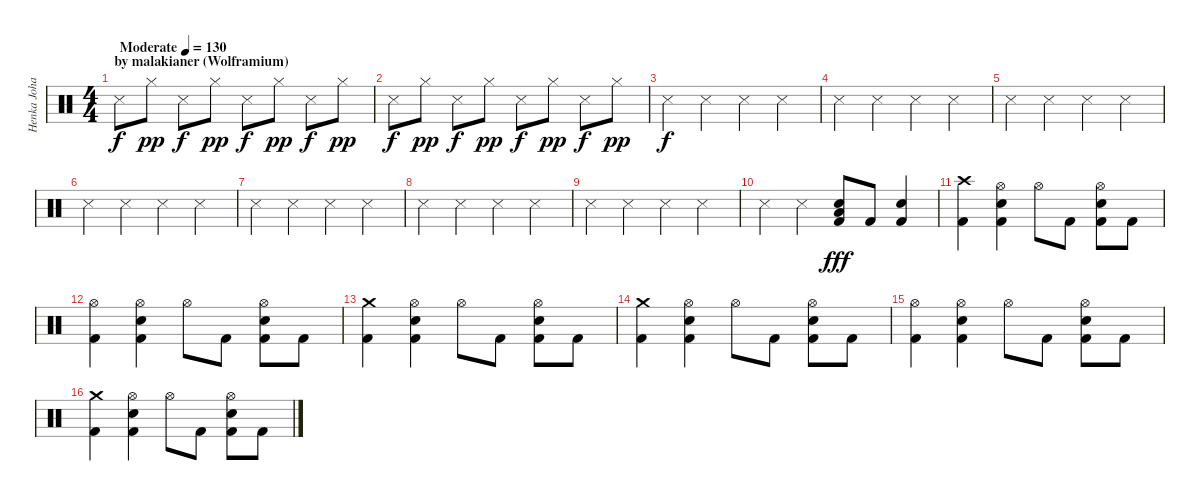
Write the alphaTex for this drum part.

\track ("Henka Johansson" "Henka Joha") {instrument percussion}
\staff {score}
\articulation defaults
\ts (4 4)
\section ("" "by malakianer (Wolframium)")
\tempo (130 "Moderate")
\clef neutral
\ks c "Snare (side stick) 3".8{dy f} "Hi-Hat (closed)".8{dy pp} "Snare (side stick) 3".8{dy f} "Hi-Hat (closed)".8{dy pp} "Snare (side stick) 3".8{dy f} "Hi-Hat (closed)".8{dy pp} "Snare (side stick) 3".8{dy f} "Hi-Hat (closed)".8{dy pp}
|
"Snare (side stick) 3".8{dy f} "Hi-Hat (closed)".8{dy pp} "Snare (side stick) 3".8{dy f} "Hi-Hat (closed)".8{dy pp} "Snare (side stick) 3".8{dy f} "Hi-Hat (closed)".8{dy pp} "Snare (side stick) 3".8{dy f} "Hi-Hat (closed)".8{dy pp} |
"Snare (side stick) 3".4{dy f} "Snare (side stick) 3".4 "Snare (side stick) 3".4 "Snare (side stick) 3".4 |
"Snare (side stick) 3".4 "Snare (side stick) 3".4 "Snare (side stick) 3".4 "Snare (side stick) 3".4 |
"Snare (side stick) 3".4 "Snare (side stick) 3".4 "Snare (side stick) 3".4 "Snare (side stick) 3".4 |
"Snare (side stick) 3".4 "Snare (side stick) 3".4 "Snare (side stick) 3".4 "Snare (side stick) 3".4 |
"Snare (side stick) 3".4 "Snare (side stick) 3".4 "Snare (side stick) 3".4 "Snare (side stick) 3".4 |
"Snare (side stick) 3".4 "Snare (side stick) 3".4 "Snare (side stick) 3".4 "Snare (side stick) 3".4 |
"Snare (side stick) 3".4 "Snare (side stick) 3".4 "Snare (side stick) 3".4 "Snare (side stick) 3".4 |
"Snare (side stick) 3".4 "Snare (side stick) 3".4 ("Electric Snare (hit)" "Low Tom (hit)" "Kick (hit) 2").8{dy fff} "Kick (hit) 2".8 ("Snare (hit) 2" "Kick (hit) 2").4 |
("Crash high (hit)" "Kick (hit) 2").4 ("Hi-Hat (open)" "Electric Snare (hit)" "Kick (hit) 2").4 "Hi-Hat (open)".8 "Kick (hit) 2".8 ("Hi-Hat (open)" "Electric Snare (hit)" "Kick (hit) 2").8 "Kick (hit) 2".8 |
("Hi-Hat (open)" "Kick (hit) 2").4 ("Hi-Hat (open)" "Electric Snare (hit)" "Kick (hit) 2").4 "Hi-Hat (open)".8 "Kick (hit) 2".8 ("Hi-Hat (open)" "Electric Snare (hit)" "Kick (hit) 2").8 "Kick (hit) 2".8 |
("Crash medium (hit)" "Kick (hit) 2").4 ("Hi-Hat (open)" "Electric Snare (hit)" "Kick (hit) 2").4 "Hi-Hat (open)".8 "Kick (hit) 2".8 ("Hi-Hat (open)" "Electric Snare (hit)" "Kick (hit) 2").8 "Kick (hit) 2".8 |
("Crash medium (hit)" "Kick (hit) 2").4 ("Hi-Hat (open)" "Electric Snare (hit)" "Kick (hit) 2").4 "Hi-Hat (open)".8 "Kick (hit) 2".8 ("Hi-Hat (open)" "Electric Snare (hit)" "Kick (hit) 2").8 "Kick (hit) 2".8 |
("Hi-Hat (open)" "Kick (hit) 2").4 ("Hi-Hat (open)" "Electric Snare (hit)" "Kick (hit) 2").4 "Hi-Hat (open)".8 "Kick (hit) 2".8 ("Hi-Hat (open)" "Electric Snare (hit)" "Kick (hit) 2").8 "Kick (hit) 2".8 |
("Crash medium (hit)" "Kick (hit) 2").4 ("Hi-Hat (open)" "Electric Snare (hit)" "Kick (hit) 2").4 "Hi-Hat (open)".8 "Kick (hit) 2".8 ("Hi-Hat (open)" "Electric Snare (hit)" "Kick (hit) 2").8 "Kick (hit) 2".8
